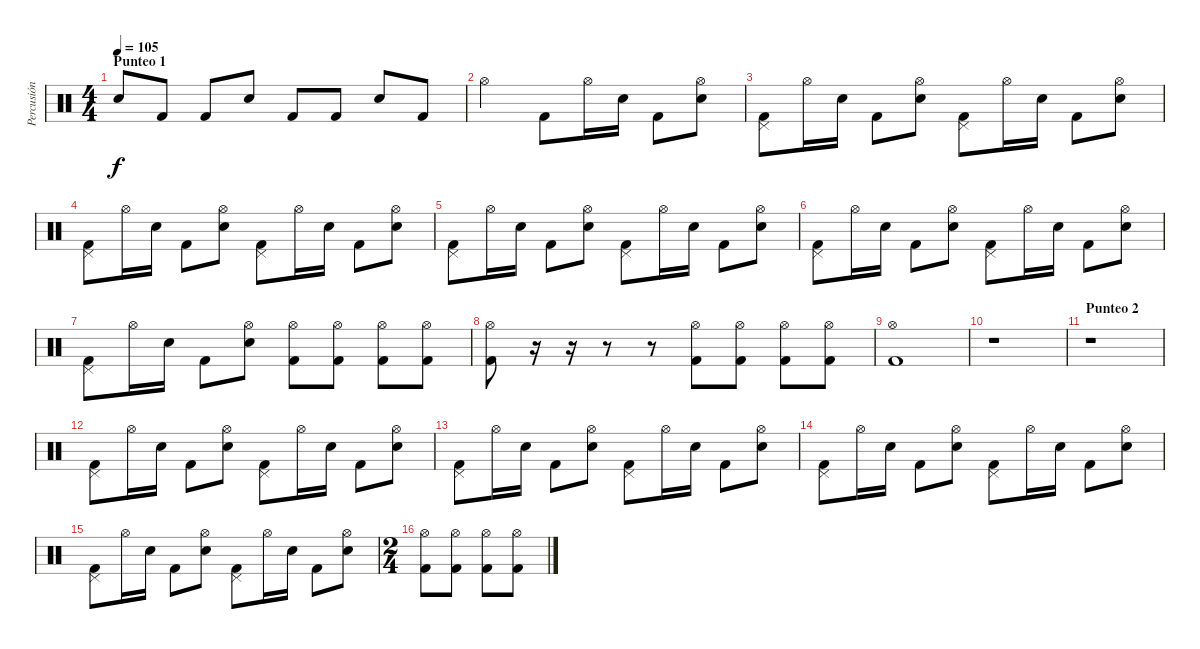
\track ("Percusión" "Percusión") {instrument percussion}
\staff {score}
\articulation defaults
\ts (4 4)
\section ("" "Punteo 1")
\tempo 105
\clef neutral
\ks c "Electric Snare (hit)".8{dy f} "Kick (hit) 2".8 "Kick (hit) 2".8 "Electric Snare (hit)".8 "Kick (hit) 2".8 "Kick (hit) 2".8 "Electric Snare (hit)".8 "Kick (hit) 2".8
|
"Hi-Hat (open)".2 "Kick (hit) 2".8 "Hi-Hat (open)".16 "Electric Snare (hit)".16 "Kick (hit) 2".8 ("Electric Snare (hit)" "Hi-Hat (open)").8 |
("Pedal Hi-Hat (hit)" "Kick (hit) 2").8 "Hi-Hat (open)".16 "Electric Snare (hit)".16 "Kick (hit) 2".8 ("Electric Snare (hit)" "Hi-Hat (open)").8 ("Pedal Hi-Hat (hit)" "Kick (hit) 2").8 "Hi-Hat (open)".16 "Electric Snare (hit)".16 "Kick (hit) 2".8 ("Electric Snare (hit)" "Hi-Hat (open)").8 |
("Pedal Hi-Hat (hit)" "Kick (hit) 2").8 "Hi-Hat (open)".16 "Electric Snare (hit)".16 "Kick (hit) 2".8 ("Electric Snare (hit)" "Hi-Hat (open)").8 ("Pedal Hi-Hat (hit)" "Kick (hit) 2").8 "Hi-Hat (open)".16 "Electric Snare (hit)".16 "Kick (hit) 2".8 ("Electric Snare (hit)" "Hi-Hat (open)").8 |
("Pedal Hi-Hat (hit)" "Kick (hit) 2").8 "Hi-Hat (open)".16 "Electric Snare (hit)".16 "Kick (hit) 2".8 ("Electric Snare (hit)" "Hi-Hat (open)").8 ("Pedal Hi-Hat (hit)" "Kick (hit) 2").8 "Hi-Hat (open)".16 "Electric Snare (hit)".16 "Kick (hit) 2".8 ("Electric Snare (hit)" "Hi-Hat (open)").8 |
("Pedal Hi-Hat (hit)" "Kick (hit) 2").8 "Hi-Hat (open)".16 "Electric Snare (hit)".16 "Kick (hit) 2".8 ("Electric Snare (hit)" "Hi-Hat (open)").8 ("Pedal Hi-Hat (hit)" "Kick (hit) 2").8 "Hi-Hat (open)".16 "Electric Snare (hit)".16 "Kick (hit) 2".8 ("Electric Snare (hit)" "Hi-Hat (open)").8 |
("Pedal Hi-Hat (hit)" "Kick (hit) 2").8 "Hi-Hat (open)".16 "Electric Snare (hit)".16 "Kick (hit) 2".8 ("Electric Snare (hit)" "Hi-Hat (open)").8 ("Hi-Hat (open)" "Kick (hit) 2").8 ("Hi-Hat (open)" "Kick (hit) 2").8 ("Hi-Hat (open)" "Kick (hit) 2").8 ("Hi-Hat (open)" "Kick (hit) 2").8 |
("Hi-Hat (open)" "Kick (hit) 2").8 r.16 r.16 r.8 r.8 ("Hi-Hat (open)" "Kick (hit) 2").8 ("Hi-Hat (open)" "Kick (hit) 2").8 ("Hi-Hat (open)" "Kick (hit) 2").8 ("Hi-Hat (open)" "Kick (hit) 2").8 |
("Hi-Hat (open)" "Kick (hit) 2").1 |
r.1 |
\section ("" "Punteo 2")
r.1 |
("Pedal Hi-Hat (hit)" "Kick (hit) 2").8 "Hi-Hat (open)".16 "Electric Snare (hit)".16 "Kick (hit) 2".8 ("Electric Snare (hit)" "Hi-Hat (open)").8 ("Pedal Hi-Hat (hit)" "Kick (hit) 2").8 "Hi-Hat (open)".16 "Electric Snare (hit)".16 "Kick (hit) 2".8 ("Electric Snare (hit)" "Hi-Hat (open)").8 |
("Pedal Hi-Hat (hit)" "Kick (hit) 2").8 "Hi-Hat (open)".16 "Electric Snare (hit)".16 "Kick (hit) 2".8 ("Electric Snare (hit)" "Hi-Hat (open)").8 ("Pedal Hi-Hat (hit)" "Kick (hit) 2").8 "Hi-Hat (open)".16 "Electric Snare (hit)".16 "Kick (hit) 2".8 ("Electric Snare (hit)" "Hi-Hat (open)").8 |
("Pedal Hi-Hat (hit)" "Kick (hit) 2").8 "Hi-Hat (open)".16 "Electric Snare (hit)".16 "Kick (hit) 2".8 ("Electric Snare (hit)" "Hi-Hat (open)").8 ("Pedal Hi-Hat (hit)" "Kick (hit) 2").8 "Hi-Hat (open)".16 "Electric Snare (hit)".16 "Kick (hit) 2".8 ("Electric Snare (hit)" "Hi-Hat (open)").8 |
("Pedal Hi-Hat (hit)" "Kick (hit) 2").8 "Hi-Hat (open)".16 "Electric Snare (hit)".16 "Kick (hit) 2".8 ("Electric Snare (hit)" "Hi-Hat (open)").8 ("Pedal Hi-Hat (hit)" "Kick (hit) 2").8 "Hi-Hat (open)".16 "Electric Snare (hit)".16 "Kick (hit) 2".8 ("Electric Snare (hit)" "Hi-Hat (open)").8 |
\ts (2 4)
("Hi-Hat (open)" "Kick (hit) 2").8 ("Hi-Hat (open)" "Kick (hit) 2").8 ("Hi-Hat (open)" "Kick (hit) 2").8 ("Hi-Hat (open)" "Kick (hit) 2").8
